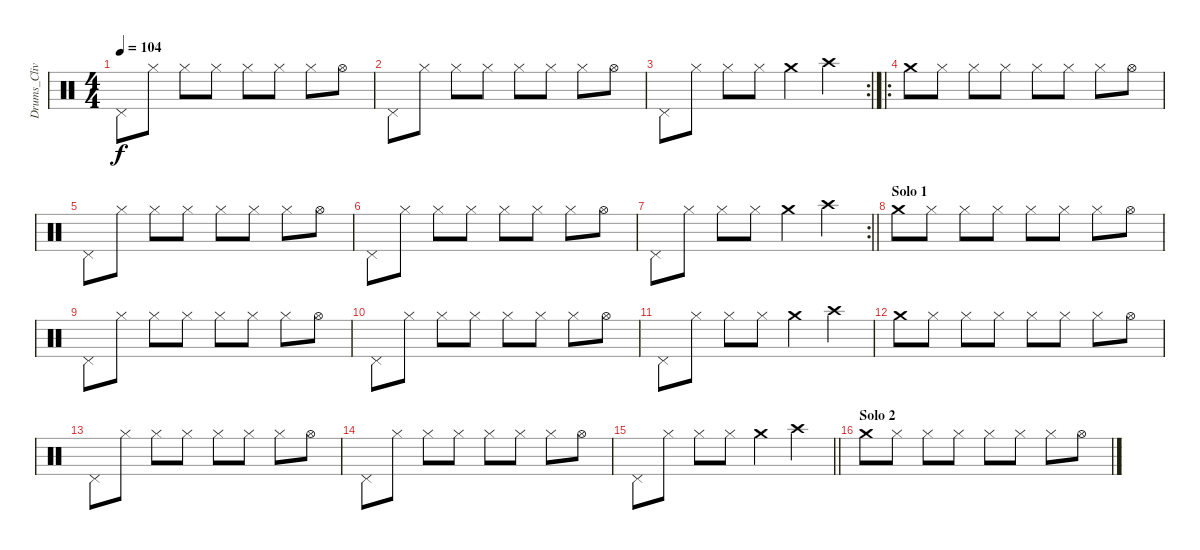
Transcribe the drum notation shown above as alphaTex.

\track ("Drums_CliveBurr" "Drums_Cliv") {instrument percussion}
\staff {score}
\articulation defaults
\ts (4 4)
\tempo 104
\clef neutral
\ks c "Pedal Hi-Hat (hit)".8{dy f} "Hi-Hat (closed)".8 "Hi-Hat (closed)".8 "Hi-Hat (closed)".8 "Hi-Hat (closed)".8 "Hi-Hat (closed)".8 "Hi-Hat (closed)".8 "Hi-Hat (open)".8
|
"Pedal Hi-Hat (hit)".8 "Hi-Hat (closed)".8 "Hi-Hat (closed)".8 "Hi-Hat (closed)".8 "Hi-Hat (closed)".8 "Hi-Hat (closed)".8 "Hi-Hat (closed)".8 "Hi-Hat (open)".8 |
\rc 2 "Pedal Hi-Hat (hit)".8 "Hi-Hat (closed)".8 "Hi-Hat (closed)".8 "Hi-Hat (closed)".8 "Crash medium (hit)".4 "Crash high (hit)".4
|
\ro "Crash medium (hit)".8 "Hi-Hat (closed)".8 "Hi-Hat (closed)".8 "Hi-Hat (closed)".8 "Hi-Hat (closed)".8 "Hi-Hat (closed)".8 "Hi-Hat (closed)".8 "Hi-Hat (open)".8
|
"Pedal Hi-Hat (hit)".8 "Hi-Hat (closed)".8 "Hi-Hat (closed)".8 "Hi-Hat (closed)".8 "Hi-Hat (closed)".8 "Hi-Hat (closed)".8 "Hi-Hat (closed)".8 "Hi-Hat (open)".8 |
"Pedal Hi-Hat (hit)".8 "Hi-Hat (closed)".8 "Hi-Hat (closed)".8 "Hi-Hat (closed)".8 "Hi-Hat (closed)".8 "Hi-Hat (closed)".8 "Hi-Hat (closed)".8 "Hi-Hat (open)".8 |
\rc 2
\barLineRight lightlight "Pedal Hi-Hat (hit)".8 "Hi-Hat (closed)".8 "Hi-Hat (closed)".8 "Hi-Hat (closed)".8 "Crash medium (hit)".4 "Crash high (hit)".4
|
\section ("" "Solo 1")
"Crash medium (hit)".8 "Hi-Hat (closed)".8 "Hi-Hat (closed)".8 "Hi-Hat (closed)".8 "Hi-Hat (closed)".8 "Hi-Hat (closed)".8 "Hi-Hat (closed)".8 "Hi-Hat (open)".8 |
"Pedal Hi-Hat (hit)".8 "Hi-Hat (closed)".8 "Hi-Hat (closed)".8 "Hi-Hat (closed)".8 "Hi-Hat (closed)".8 "Hi-Hat (closed)".8 "Hi-Hat (closed)".8 "Hi-Hat (open)".8 |
"Pedal Hi-Hat (hit)".8 "Hi-Hat (closed)".8 "Hi-Hat (closed)".8 "Hi-Hat (closed)".8 "Hi-Hat (closed)".8 "Hi-Hat (closed)".8 "Hi-Hat (closed)".8 "Hi-Hat (open)".8 |
"Pedal Hi-Hat (hit)".8 "Hi-Hat (closed)".8 "Hi-Hat (closed)".8 "Hi-Hat (closed)".8 "Crash medium (hit)".4 "Crash high (hit)".4 |
"Crash medium (hit)".8 "Hi-Hat (closed)".8 "Hi-Hat (closed)".8 "Hi-Hat (closed)".8 "Hi-Hat (closed)".8 "Hi-Hat (closed)".8 "Hi-Hat (closed)".8 "Hi-Hat (open)".8 |
"Pedal Hi-Hat (hit)".8 "Hi-Hat (closed)".8 "Hi-Hat (closed)".8 "Hi-Hat (closed)".8 "Hi-Hat (closed)".8 "Hi-Hat (closed)".8 "Hi-Hat (closed)".8 "Hi-Hat (open)".8 |
"Pedal Hi-Hat (hit)".8 "Hi-Hat (closed)".8 "Hi-Hat (closed)".8 "Hi-Hat (closed)".8 "Hi-Hat (closed)".8 "Hi-Hat (closed)".8 "Hi-Hat (closed)".8 "Hi-Hat (open)".8 |
\barLineRight lightlight "Pedal Hi-Hat (hit)".8 "Hi-Hat (closed)".8 "Hi-Hat (closed)".8 "Hi-Hat (closed)".8 "Crash medium (hit)".4 "Crash high (hit)".4
|
\section ("" "Solo 2")
"Crash medium (hit)".8 "Hi-Hat (closed)".8 "Hi-Hat (closed)".8 "Hi-Hat (closed)".8 "Hi-Hat (closed)".8 "Hi-Hat (closed)".8 "Hi-Hat (closed)".8 "Hi-Hat (open)".8
